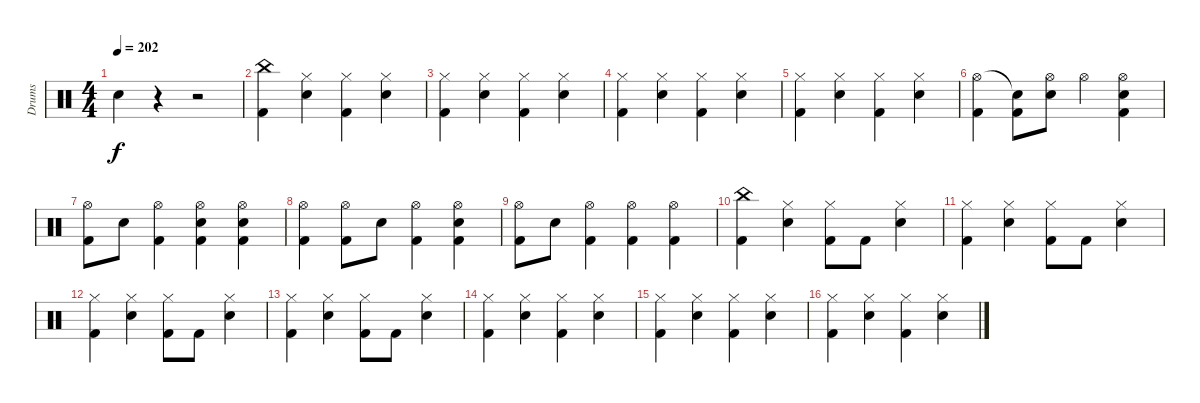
\track ("Drums" "Drums") {instrument percussion}
\staff {score}
\articulation defaults
\ts (4 4)
\tempo 202
\clef neutral
\ks c "Snare (hit) 2".4{dy f}
r.4 r.2 |
("China (hit)" "Kick (hit) 2").4 ("Hi-Hat (closed)" "Snare (hit) 2").4 ("Hi-Hat (closed)" "Kick (hit) 2").4 ("Hi-Hat (closed)" "Snare (hit) 2").4 |
("Hi-Hat (closed)" "Kick (hit) 2").4 ("Hi-Hat (closed)" "Snare (hit) 2").4 ("Hi-Hat (closed)" "Kick (hit) 2").4 ("Hi-Hat (closed)" "Snare (hit) 2").4 |
("Hi-Hat (closed)" "Kick (hit) 2").4 ("Hi-Hat (closed)" "Snare (hit) 2").4 ("Hi-Hat (closed)" "Kick (hit) 2").4 ("Hi-Hat (closed)" "Snare (hit) 2").4 |
("Hi-Hat (closed)" "Kick (hit) 2").4 ("Hi-Hat (closed)" "Snare (hit) 2").4 ("Hi-Hat (closed)" "Kick (hit) 2").4 ("Hi-Hat (closed)" "Snare (hit) 2").4 |
("Hi-Hat (open)" "Kick (hit) 2").4 ("Snare (hit)"{t} "Kick (hit) 2").8 ("Hi-Hat (open)" "Snare (hit) 2").8 "Hi-Hat (open)".4 ("Hi-Hat (open)" "Snare (hit) 2" "Kick (hit) 2").4 |
("Hi-Hat (open)" "Kick (hit) 2").8 "Snare (hit) 2".8 ("Hi-Hat (open)" "Kick (hit) 2").4 ("Hi-Hat (open)" "Snare (hit) 2" "Kick (hit) 2").4 ("Hi-Hat (open)" "Snare (hit) 2" "Kick (hit) 2").4 |
("Hi-Hat (open)" "Kick (hit) 2").4 ("Hi-Hat (open)" "Kick (hit) 2").8 "Snare (hit) 2".8 ("Hi-Hat (open)" "Kick (hit) 2").4 ("Hi-Hat (open)" "Snare (hit) 2" "Kick (hit) 2").4 |
("Hi-Hat (open)" "Kick (hit) 2").8 "Snare (hit) 2".8 ("Hi-Hat (open)" "Kick (hit) 2").4 ("Hi-Hat (open)" "Kick (hit) 2").4 ("Hi-Hat (open)" "Kick (hit) 2").4 |
("China (hit)" "Kick (hit) 2").4 ("Hi-Hat (closed)" "Snare (hit) 2").4 ("Hi-Hat (closed)" "Kick (hit) 2").8 "Kick (hit) 2".8 ("Hi-Hat (closed)" "Snare (hit) 2").4 |
("Hi-Hat (closed)" "Kick (hit) 2").4 ("Hi-Hat (closed)" "Snare (hit) 2").4 ("Hi-Hat (closed)" "Kick (hit) 2").8 "Kick (hit) 2".8 ("Hi-Hat (closed)" "Snare (hit) 2").4 |
("Hi-Hat (closed)" "Kick (hit) 2").4 ("Hi-Hat (closed)" "Snare (hit) 2").4 ("Hi-Hat (closed)" "Kick (hit) 2").8 "Kick (hit) 2".8 ("Hi-Hat (closed)" "Snare (hit) 2").4 |
("Hi-Hat (closed)" "Kick (hit) 2").4 ("Hi-Hat (closed)" "Snare (hit) 2").4 ("Hi-Hat (closed)" "Kick (hit) 2").8 "Kick (hit) 2".8 ("Hi-Hat (closed)" "Snare (hit) 2").4 |
("Hi-Hat (closed)" "Kick (hit) 2").4 ("Hi-Hat (closed)" "Snare (hit) 2").4 ("Hi-Hat (closed)" "Kick (hit) 2").4 ("Hi-Hat (closed)" "Snare (hit) 2").4 |
("Hi-Hat (closed)" "Kick (hit) 2").4 ("Hi-Hat (closed)" "Snare (hit) 2").4 ("Hi-Hat (closed)" "Kick (hit) 2").4 ("Hi-Hat (closed)" "Snare (hit) 2").4 |
("Hi-Hat (closed)" "Kick (hit) 2").4 ("Hi-Hat (closed)" "Snare (hit) 2").4 ("Hi-Hat (closed)" "Kick (hit) 2").4 ("Hi-Hat (closed)" "Snare (hit) 2").4
